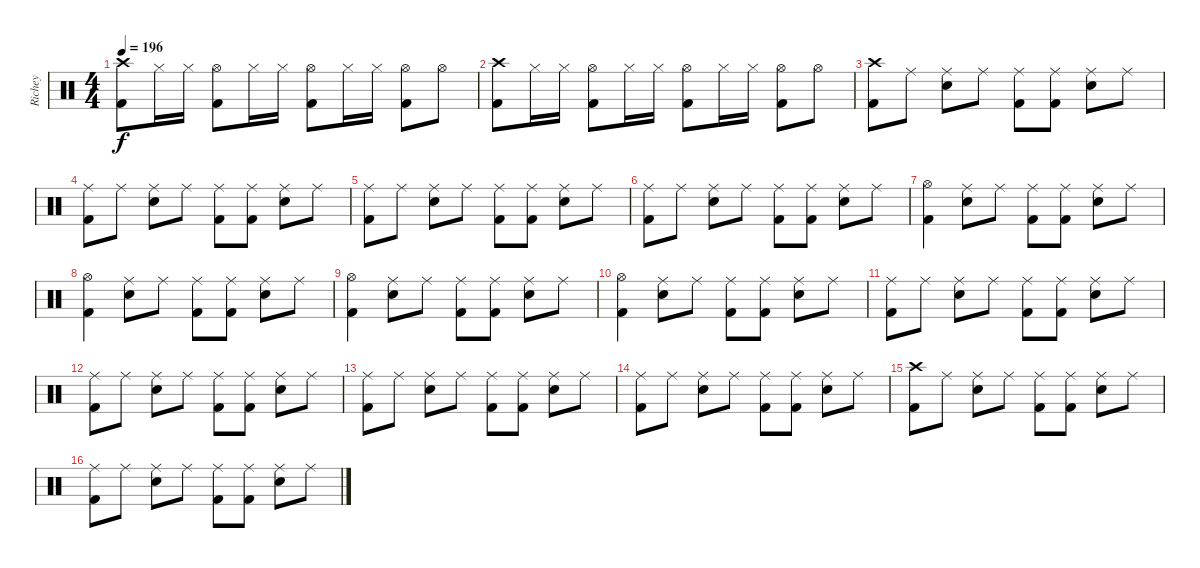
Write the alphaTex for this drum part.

\track ("Richey" "Richey") {instrument percussion}
\staff {score}
\articulation defaults
\ts (4 4)
\tempo 196
\clef neutral
\ks c
("Crash high (hit)" "Kick (hit) 2").8{dy f} "Hi-Hat (closed)".16 "Hi-Hat (closed)".16 ("Hi-Hat (open)" "Kick (hit) 2").8 "Hi-Hat (closed)".16 "Hi-Hat (closed)".16 ("Hi-Hat (open)" "Kick (hit) 2").8 "Hi-Hat (closed)".16 "Hi-Hat (closed)".16 ("Hi-Hat (open)" "Kick (hit) 2").8 "Hi-Hat (open)".8 |
("Crash high (hit)" "Kick (hit) 2").8 "Hi-Hat (closed)".16 "Hi-Hat (closed)".16 ("Hi-Hat (open)" "Kick (hit) 2").8 "Hi-Hat (closed)".16 "Hi-Hat (closed)".16 ("Hi-Hat (open)" "Kick (hit) 2").8 "Hi-Hat (closed)".16 "Hi-Hat (closed)".16 ("Hi-Hat (open)" "Kick (hit) 2").8 "Hi-Hat (open)".8 |
("Crash high (hit)" "Kick (hit) 2").8 "Ride (middle)".8 ("Ride (middle)" "Snare (hit) 2").8 "Ride (middle)".8 ("Ride (middle)" "Kick (hit) 2").8 ("Ride (middle)" "Kick (hit) 2").8 ("Ride (middle)" "Snare (hit) 2").8 "Ride (middle)".8 |
("Ride (middle)" "Kick (hit) 2").8 "Ride (middle)".8 ("Ride (middle)" "Snare (hit) 2").8 "Ride (middle)".8 ("Ride (middle)" "Kick (hit) 2").8 ("Ride (middle)" "Kick (hit) 2").8 ("Ride (middle)" "Snare (hit) 2").8 "Ride (middle)".8 |
("Ride (middle)" "Kick (hit) 2").8 "Ride (middle)".8 ("Ride (middle)" "Snare (hit) 2").8 "Ride (middle)".8 ("Ride (middle)" "Kick (hit) 2").8 ("Ride (middle)" "Kick (hit) 2").8 ("Ride (middle)" "Snare (hit) 2").8 "Ride (middle)".8 |
("Ride (middle)" "Kick (hit) 2").8 "Ride (middle)".8 ("Ride (middle)" "Snare (hit) 2").8 "Ride (middle)".8 ("Ride (middle)" "Kick (hit) 2").8 ("Ride (middle)" "Kick (hit) 2").8 ("Ride (middle)" "Snare (hit) 2").8 "Ride (middle)".8 |
("Hi-Hat (open)" "Kick (hit) 2").4 ("Ride (middle)" "Snare (hit) 2").8 "Ride (middle)".8 ("Ride (middle)" "Kick (hit) 2").8 ("Ride (middle)" "Kick (hit) 2").8 ("Ride (middle)" "Snare (hit) 2").8 "Ride (middle)".8 |
("Hi-Hat (open)" "Kick (hit) 2").4 ("Ride (middle)" "Snare (hit) 2").8 "Ride (middle)".8 ("Ride (middle)" "Kick (hit) 2").8 ("Ride (middle)" "Kick (hit) 2").8 ("Ride (middle)" "Snare (hit) 2").8 "Ride (middle)".8 |
("Hi-Hat (open)" "Kick (hit) 2").4 ("Ride (middle)" "Snare (hit) 2").8 "Ride (middle)".8 ("Ride (middle)" "Kick (hit) 2").8 ("Ride (middle)" "Kick (hit) 2").8 ("Ride (middle)" "Snare (hit) 2").8 "Ride (middle)".8 |
("Hi-Hat (open)" "Kick (hit) 2").4 ("Ride (middle)" "Snare (hit) 2").8 "Ride (middle)".8 ("Ride (middle)" "Kick (hit) 2").8 ("Ride (middle)" "Kick (hit) 2").8 ("Ride (middle)" "Snare (hit) 2").8 "Ride (middle)".8 |
("Ride (middle)" "Kick (hit) 2").8 "Ride (middle)".8 ("Ride (middle)" "Snare (hit) 2").8 "Ride (middle)".8 ("Ride (middle)" "Kick (hit) 2").8 ("Ride (middle)" "Kick (hit) 2").8 ("Ride (middle)" "Snare (hit) 2").8 "Ride (middle)".8 |
("Ride (middle)" "Kick (hit) 2").8 "Ride (middle)".8 ("Ride (middle)" "Snare (hit) 2").8 "Ride (middle)".8 ("Ride (middle)" "Kick (hit) 2").8 ("Ride (middle)" "Kick (hit) 2").8 ("Ride (middle)" "Snare (hit) 2").8 "Ride (middle)".8 |
("Ride (middle)" "Kick (hit) 2").8 "Ride (middle)".8 ("Ride (middle)" "Snare (hit) 2").8 "Ride (middle)".8 ("Ride (middle)" "Kick (hit) 2").8 ("Ride (middle)" "Kick (hit) 2").8 ("Ride (middle)" "Snare (hit) 2").8 "Ride (middle)".8 |
("Ride (middle)" "Kick (hit) 2").8 "Ride (middle)".8 ("Ride (middle)" "Snare (hit) 2").8 "Ride (middle)".8 ("Ride (middle)" "Kick (hit) 2").8 ("Ride (middle)" "Kick (hit) 2").8 ("Ride (middle)" "Snare (hit) 2").8 "Ride (middle)".8 |
("Crash high (hit)" "Kick (hit) 2").8 "Ride (middle)".8 ("Ride (middle)" "Snare (hit) 2").8 "Ride (middle)".8 ("Ride (middle)" "Kick (hit) 2").8 ("Ride (middle)" "Kick (hit) 2").8 ("Ride (middle)" "Snare (hit) 2").8 "Ride (middle)".8 |
("Ride (middle)" "Kick (hit) 2").8 "Ride (middle)".8 ("Ride (middle)" "Snare (hit) 2").8 "Ride (middle)".8 ("Ride (middle)" "Kick (hit) 2").8 ("Ride (middle)" "Kick (hit) 2").8 ("Ride (middle)" "Snare (hit) 2").8 "Ride (middle)".8
